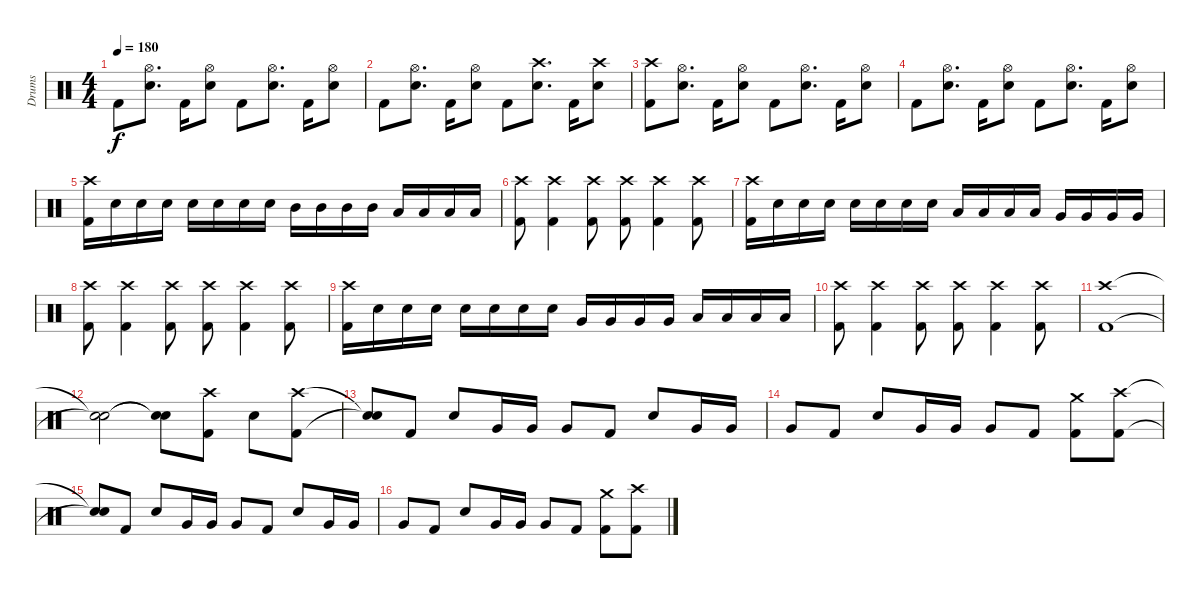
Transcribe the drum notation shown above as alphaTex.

\track ("Drums" "Drums") {instrument percussion}
\staff {score}
\articulation defaults
\ts (4 4)
\tempo 180
\clef neutral
\ks c "Kick (hit) 2".8{dy f}
("Hi-Hat (open)" "Electric Snare (hit)").8{d} "Kick (hit) 2".16 ("Hi-Hat (open)" "Electric Snare (hit)").8 "Kick (hit) 2".8 ("Hi-Hat (open)" "Electric Snare (hit)").8{d} "Kick (hit) 2".16 ("Hi-Hat (open)" "Electric Snare (hit)").8 |
"Kick (hit) 2".8 ("Hi-Hat (open)" "Electric Snare (hit)").8{d} "Kick (hit) 2".16 ("Hi-Hat (open)" "Electric Snare (hit)").8 "Kick (hit) 2".8 ("Crash high (hit)" "Electric Snare (hit)").8{d} "Kick (hit) 2".16 ("Crash high (hit)" "Electric Snare (hit)").8 |
("Crash high (hit)" "Kick (hit) 2").8 ("Hi-Hat (open)" "Electric Snare (hit)").8{d} "Kick (hit) 2".16 ("Hi-Hat (open)" "Electric Snare (hit)").8 "Kick (hit) 2".8 ("Hi-Hat (open)" "Electric Snare (hit)").8{d} "Kick (hit) 2".16 ("Hi-Hat (open)" "Electric Snare (hit)").8 |
"Kick (hit) 2".8 ("Hi-Hat (open)" "Electric Snare (hit)").8{d} "Kick (hit) 2".16 ("Hi-Hat (open)" "Electric Snare (hit)").8 "Kick (hit) 2".8 ("Hi-Hat (open)" "Electric Snare (hit)").8{d} "Kick (hit) 2".16 ("Hi-Hat (open)" "Electric Snare (hit)").8 |
("Crash high (hit)" "Kick (hit) 2").16 "Electric Snare (hit)".16 "Electric Snare (hit)".16 "Electric Snare (hit)".16 "Electric Snare (hit)".16 "Electric Snare (hit)".16 "Electric Snare (hit)".16 "Electric Snare (hit)".16 "Mid Tom (hit)".16 "Mid Tom (hit)".16 "Mid Tom (hit)".16 "Mid Tom (hit)".16 "Low Tom (hit)".16 "Low Tom (hit)".16 "Low Tom (hit)".16 "Low Tom (hit)".16 |
("Crash high (hit)" "Kick (hit) 2").8 ("Crash high (hit)" "Kick (hit) 2").4 ("Crash high (hit)" "Kick (hit) 2").8 ("Crash high (hit)" "Kick (hit) 2").8 ("Crash high (hit)" "Kick (hit) 2").4 ("Crash high (hit)" "Kick (hit) 2").8 |
("Crash high (hit)" "Kick (hit) 2").16 "Electric Snare (hit)".16 "Electric Snare (hit)".16 "Electric Snare (hit)".16 "Electric Snare (hit)".16 "Electric Snare (hit)".16 "Electric Snare (hit)".16 "Electric Snare (hit)".16 "Low Tom (hit)".16 "Low Tom (hit)".16 "Low Tom (hit)".16 "Low Tom (hit)".16 "Very Low Tom (hit)".16 "Very Low Tom (hit)".16 "Very Low Tom (hit)".16 "Very Low Tom (hit)".16 |
("Crash high (hit)" "Kick (hit) 2").8 ("Crash high (hit)" "Kick (hit) 2").4 ("Crash high (hit)" "Kick (hit) 2").8 ("Crash high (hit)" "Kick (hit) 2").8 ("Crash high (hit)" "Kick (hit) 2").4 ("Crash high (hit)" "Kick (hit) 2").8 |
("Crash high (hit)" "Kick (hit) 2").16 "Electric Snare (hit)".16 "Electric Snare (hit)".16 "Electric Snare (hit)".16 "Electric Snare (hit)".16 "Electric Snare (hit)".16 "Electric Snare (hit)".16 "Electric Snare (hit)".16 "Very Low Tom (hit)".16 "Very Low Tom (hit)".16 "Very Low Tom (hit)".16 "Very Low Tom (hit)".16 "Low Floor Tom (hit)".16 "Low Floor Tom (hit)".16 "Low Floor Tom (hit)".16 "Low Floor Tom (hit)".16 |
("Crash high (hit)" "Kick (hit) 2").8 ("Crash high (hit)" "Kick (hit) 2").4 ("Crash high (hit)" "Kick (hit) 2").8 ("Crash high (hit)" "Kick (hit) 2").8 ("Crash high (hit)" "Kick (hit) 2").4 ("Crash high (hit)" "Kick (hit) 2").8 |
("Crash high (hit)" "Kick (hit) 2").1 |
("Snare (hit)"{t} "Snare (hit)"{t}).2 ("Snare (hit)"{t} "Snare (hit)"{t}).8 ("Crash high (hit)" "Kick (hit) 2").8 "Electric Snare (hit)".8 ("Crash high (hit)" "Kick (hit) 2").8 |
("Snare (hit)"{t} "Snare (hit)"{t}).8 "Kick (hit) 2".8 "Electric Snare (hit)".8 "Very Low Tom (hit)".16 "Very Low Tom (hit)".16 "Very Low Tom (hit)".8 "Kick (hit) 2".8 "Electric Snare (hit)".8 "Very Low Tom (hit)".16 "Very Low Tom (hit)".16 |
"Very Low Tom (hit)".8 "Kick (hit) 2".8 "Electric Snare (hit)".8 "Very Low Tom (hit)".16 "Very Low Tom (hit)".16 "Very Low Tom (hit)".8 "Kick (hit) 2".8 ("Crash medium (hit)" "Kick (hit) 2").8 ("Crash high (hit)" "Kick (hit) 2").8 |
("Snare (hit)"{t} "Snare (hit)"{t}).8 "Kick (hit) 2".8 "Electric Snare (hit)".8 "Very Low Tom (hit)".16 "Very Low Tom (hit)".16 "Very Low Tom (hit)".8 "Kick (hit) 2".8 "Electric Snare (hit)".8 "Very Low Tom (hit)".16 "Very Low Tom (hit)".16 |
"Very Low Tom (hit)".8 "Kick (hit) 2".8 "Electric Snare (hit)".8 "Very Low Tom (hit)".16 "Very Low Tom (hit)".16 "Very Low Tom (hit)".8 "Kick (hit) 2".8 ("Crash medium (hit)" "Kick (hit) 2").8 ("Crash high (hit)" "Kick (hit) 2").8
